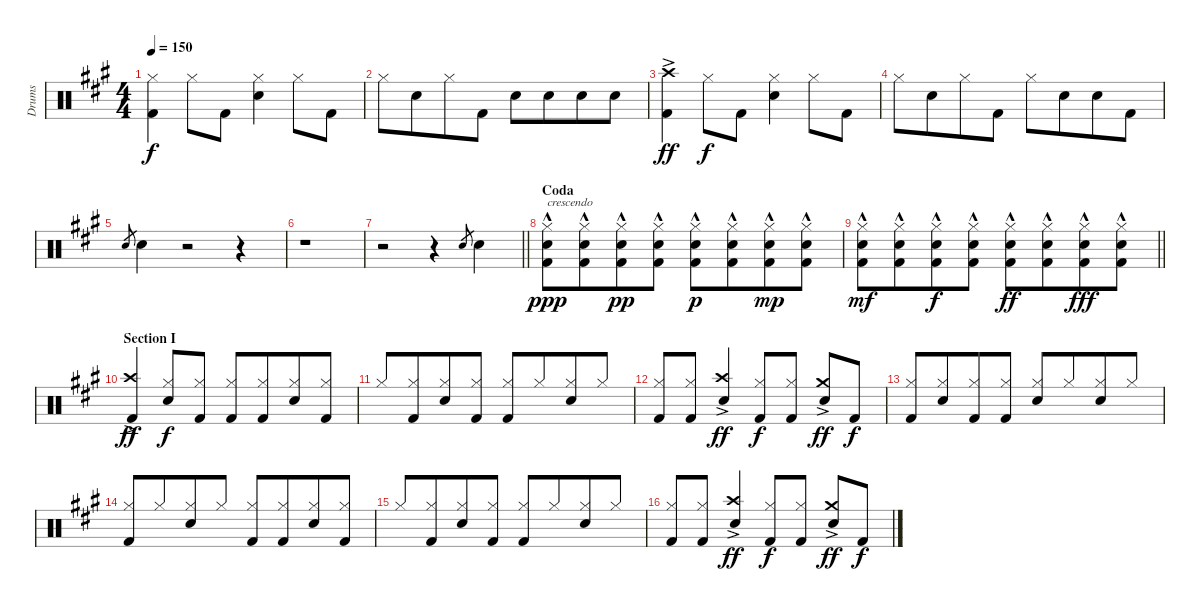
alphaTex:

\track ("Drums" "Drums") {instrument percussion}
\staff {score}
\articulation defaults
\ts (4 4)
\tempo 150
\clef neutral
\ks a
("Hi-Hat (closed)" "Kick (hit) 2").4{dy f} "Hi-Hat (closed)".8 "Kick (hit) 2".8 ("Hi-Hat (closed)" "Snare (hit) 2").4 "Hi-Hat (closed)".8 "Kick (hit) 2".8 |
"Hi-Hat (closed)".8 "Snare (hit) 2".8{beam merge} "Hi-Hat (closed)".8 "Kick (hit) 2".8 "Snare (hit) 2".8 "Snare (hit) 2".8{beam merge} "Snare (hit) 2".8 "Snare (hit) 2".8 |
("Crash high (hit)"{ac} "Kick (hit) 2").4{dy ff} "Hi-Hat (closed)".8{dy f} "Kick (hit) 2".8 ("Hi-Hat (closed)" "Snare (hit) 2").4 "Hi-Hat (closed)".8 "Kick (hit) 2".8 |
"Hi-Hat (closed)".8 "Snare (hit) 2".8{beam merge} "Hi-Hat (closed)".8 "Kick (hit) 2".8 "Hi-Hat (closed)".8 "Snare (hit) 2".8{beam merge} "Snare (hit) 2".8 "Kick (hit) 2".8 |
"Snare (hit) 2".8{gr} "Snare (hit) 2".4 r.2 r.4 |
r.1 |
\barLineRight lightlight
r.2 r.4 "Snare (hit) 2".8{gr} "Snare (hit) 2".4 |
\section ("" "Coda")
("Hi-Hat (closed)"{hac} "Snare (hit) 2" "Kick (hit) 2").8{txt "crescendo" dy ppp} ("Hi-Hat (closed)"{hac} "Snare (hit) 2" "Kick (hit) 2").8{beam merge} ("Hi-Hat (closed)"{hac} "Snare (hit) 2" "Kick (hit) 2").8{dy pp} ("Hi-Hat (closed)"{hac} "Snare (hit) 2" "Kick (hit) 2").8 ("Hi-Hat (closed)"{hac} "Snare (hit) 2" "Kick (hit) 2").8{dy p} ("Hi-Hat (closed)"{hac} "Snare (hit) 2" "Kick (hit) 2").8{beam merge} ("Hi-Hat (closed)"{hac} "Snare (hit) 2" "Kick (hit) 2").8{dy mp} ("Hi-Hat (closed)"{hac} "Snare (hit) 2" "Kick (hit) 2").8 |
\barLineRight lightlight
("Hi-Hat (closed)"{hac} "Snare (hit) 2" "Kick (hit) 2").8{dy mf} ("Hi-Hat (closed)"{hac} "Snare (hit) 2" "Kick (hit) 2").8{beam merge} ("Hi-Hat (closed)"{hac} "Snare (hit) 2" "Kick (hit) 2").8{dy f} ("Hi-Hat (closed)"{hac} "Snare (hit) 2" "Kick (hit) 2").8 ("Hi-Hat (closed)"{hac} "Snare (hit) 2" "Kick (hit) 2").8{dy ff} ("Hi-Hat (closed)"{hac} "Snare (hit) 2" "Kick (hit) 2").8{beam merge} ("Hi-Hat (closed)"{hac} "Snare (hit) 2" "Kick (hit) 2").8{dy fff} ("Hi-Hat (closed)"{hac} "Snare (hit) 2" "Kick (hit) 2").8 |
\section ("" "Section I")
("Crash high (hit)"{ac} "Kick (hit) 2").4{dy ff beam Up beam merge} ("Hi-Hat (closed)" "Snare (hit) 2").8{dy f beam Up} ("Hi-Hat (closed)" "Kick (hit) 2").8{beam Up} ("Hi-Hat (closed)" "Kick (hit) 2").8{beam Up} ("Hi-Hat (closed)" "Kick (hit) 2").8{beam Up beam merge} ("Hi-Hat (closed)" "Snare (hit) 2").8{beam Up} ("Hi-Hat (closed)" "Kick (hit) 2").8{beam Up} |
"Hi-Hat (closed)".8{beam Up} ("Hi-Hat (closed)" "Kick (hit) 2").8{beam Up beam merge} ("Hi-Hat (closed)" "Snare (hit) 2").8{beam Up} ("Hi-Hat (closed)" "Kick (hit) 2").8{beam Up} ("Hi-Hat (closed)" "Kick (hit) 2").8{beam Up} "Hi-Hat (closed)".8{beam Up beam merge} ("Hi-Hat (closed)" "Snare (hit) 2").8{beam Up} "Hi-Hat (closed)".8{beam Up} |
("Hi-Hat (closed)" "Kick (hit) 2").8{beam Up} ("Hi-Hat (closed)" "Kick (hit) 2").8{beam Up} ("Crash high (hit)"{ac} "Snare (hit) 2").4{dy ff beam Up} ("Hi-Hat (closed)" "Kick (hit) 2").8{dy f beam Up} ("Hi-Hat (closed)" "Kick (hit) 2").8{beam Up} ("Crash medium (hit)"{ac} "Snare (hit) 2").8{dy ff beam Up} "Kick (hit) 2".8{dy f beam Up} |
("Hi-Hat (closed)" "Kick (hit) 2").8{beam Up} ("Hi-Hat (closed)" "Snare (hit) 2").8{beam Up beam merge} ("Hi-Hat (closed)" "Kick (hit) 2").8{beam Up} ("Hi-Hat (closed)" "Kick (hit) 2").8{beam Up} ("Hi-Hat (closed)" "Snare (hit) 2").8{beam Up} "Hi-Hat (closed)".8{beam Up beam merge} ("Hi-Hat (closed)" "Snare (hit) 2").8{beam Up} "Hi-Hat (closed)".8{beam Up} |
("Hi-Hat (closed)" "Kick (hit) 2").8{beam Up} "Hi-Hat (closed)".8{beam Up beam merge} ("Hi-Hat (closed)" "Snare (hit) 2").8{beam Up} "Hi-Hat (closed)".8{beam Up} ("Hi-Hat (closed)" "Kick (hit) 2").8{beam Up} ("Hi-Hat (closed)" "Kick (hit) 2").8{beam Up beam merge} ("Hi-Hat (closed)" "Snare (hit) 2").8{beam Up} ("Hi-Hat (closed)" "Kick (hit) 2").8{beam Up} |
"Hi-Hat (closed)".8{beam Up} ("Hi-Hat (closed)" "Kick (hit) 2").8{beam Up beam merge} ("Hi-Hat (closed)" "Snare (hit) 2").8{beam Up} ("Hi-Hat (closed)" "Kick (hit) 2").8{beam Up} ("Hi-Hat (closed)" "Kick (hit) 2").8{beam Up} "Hi-Hat (closed)".8{beam Up beam merge} ("Hi-Hat (closed)" "Snare (hit) 2").8{beam Up} "Hi-Hat (closed)".8{beam Up} |
("Hi-Hat (closed)" "Kick (hit) 2").8{beam Up} ("Hi-Hat (closed)" "Kick (hit) 2").8{beam Up} ("Crash high (hit)"{ac} "Snare (hit) 2").4{dy ff beam Up} ("Hi-Hat (closed)" "Kick (hit) 2").8{dy f beam Up} ("Hi-Hat (closed)" "Kick (hit) 2").8{beam Up} ("Crash medium (hit)"{ac} "Snare (hit) 2").8{dy ff beam Up} "Kick (hit) 2".8{dy f beam Up}
